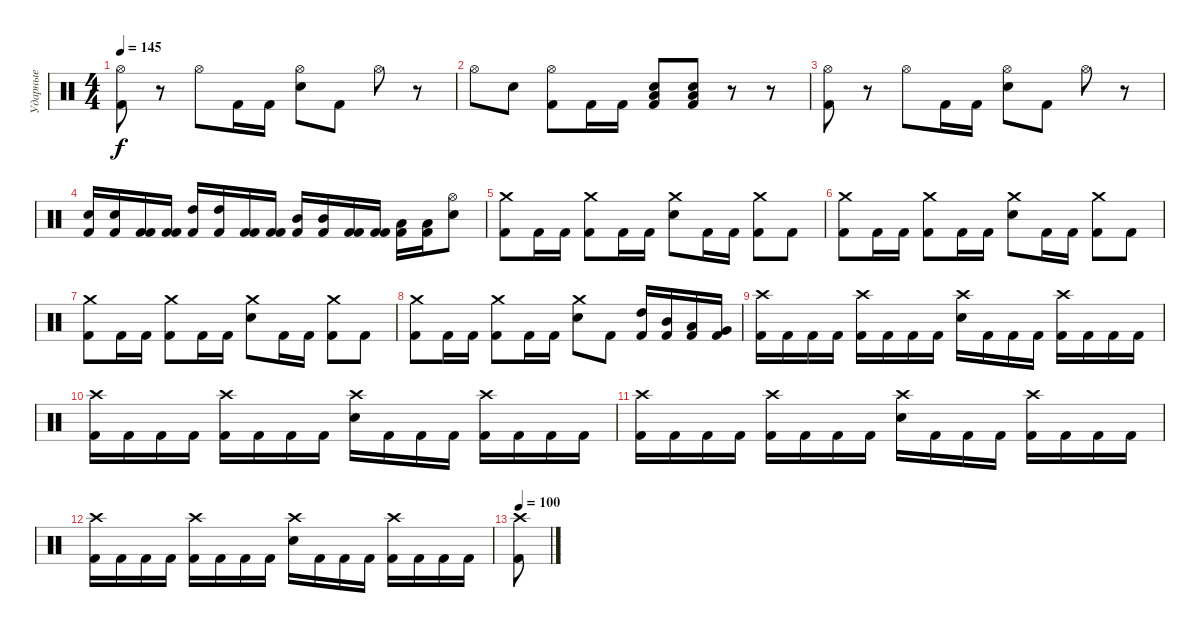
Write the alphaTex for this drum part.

\track ("Ударные" "Ударные") {instrument percussion}
\staff {score}
\articulation defaults
\ts (4 4)
\tempo 145
\clef neutral
\ks c
("Hi-Hat (open)" "Kick (hit) 2").8{dy f} r.8 "Hi-Hat (open)".8 "Kick (hit) 2".16 "Kick (hit) 2".16 ("Hi-Hat (open)" "Electric Snare (hit)").8 "Kick (hit) 2".8 "Hi-Hat (open)".8 r.8 |
"Hi-Hat (open)".8 "Electric Snare (hit)".8 ("Hi-Hat (open)" "Kick (hit) 2").8 "Kick (hit) 2".16 "Kick (hit) 2".16 ("Low Tom (hit)" "Electric Snare (hit)" "Kick (hit) 2").8 ("Low Tom (hit)" "Electric Snare (hit)" "Kick (hit) 2").8 r.8 r.8 |
("Hi-Hat (open)" "Kick (hit) 2").8 r.8 "Hi-Hat (open)".8 "Kick (hit) 2".16 "Kick (hit) 2".16 ("Hi-Hat (open)" "Electric Snare (hit)").8 "Kick (hit) 2".8 "Hi-Hat (open)".8 r.8 |
("Electric Snare (hit)" "Kick (hit) 2").16 ("Electric Snare (hit)" "Kick (hit) 2").16 ("Kick (hit) 2" "Kick (hit) 2").16 ("Kick (hit) 2" "Kick (hit) 2").16 ("High Tom (hit)" "Kick (hit) 2").16 ("High Tom (hit)" "Kick (hit) 2").16 ("Kick (hit) 2" "Kick (hit) 2").16 ("Kick (hit) 2" "Kick (hit) 2").16 ("Mid Tom (hit)" "Kick (hit) 2").16 ("Mid Tom (hit)" "Kick (hit) 2").16 ("Kick (hit) 2" "Kick (hit) 2").16 ("Kick (hit) 2" "Kick (hit) 2").16 ("Low Tom (hit)" "Kick (hit) 2").16 ("Low Tom (hit)" "Kick (hit) 2").16 ("Hi-Hat (open)" "Electric Snare (hit)").8 |
("Crash medium (hit)" "Kick (hit) 2").8 "Kick (hit) 2".16 "Kick (hit) 2".16 ("Crash medium (hit)" "Kick (hit) 2").8 "Kick (hit) 2".16 "Kick (hit) 2".16 ("Crash medium (hit)" "Electric Snare (hit)").8 "Kick (hit) 2".16 "Kick (hit) 2".16 ("Crash medium (hit)" "Kick (hit) 2").8 "Kick (hit) 2".8 |
("Crash medium (hit)" "Kick (hit) 2").8 "Kick (hit) 2".16 "Kick (hit) 2".16 ("Crash medium (hit)" "Kick (hit) 2").8 "Kick (hit) 2".16 "Kick (hit) 2".16 ("Crash medium (hit)" "Electric Snare (hit)").8 "Kick (hit) 2".16 "Kick (hit) 2".16 ("Crash medium (hit)" "Kick (hit) 2").8 "Kick (hit) 2".8 |
("Crash medium (hit)" "Kick (hit) 2").8 "Kick (hit) 2".16 "Kick (hit) 2".16 ("Crash medium (hit)" "Kick (hit) 2").8 "Kick (hit) 2".16 "Kick (hit) 2".16 ("Crash medium (hit)" "Electric Snare (hit)").8 "Kick (hit) 2".16 "Kick (hit) 2".16 ("Crash medium (hit)" "Kick (hit) 2").8 "Kick (hit) 2".8 |
("Crash medium (hit)" "Kick (hit) 2").8 "Kick (hit) 2".16 "Kick (hit) 2".16 ("Crash medium (hit)" "Kick (hit) 2").8 "Kick (hit) 2".16 "Kick (hit) 2".16 ("Crash medium (hit)" "Electric Snare (hit)").8 "Kick (hit) 2".8 ("High Tom (hit)" "Kick (hit) 2").16 ("Mid Tom (hit)" "Kick (hit) 2").16 ("Low Tom (hit)" "Kick (hit) 2").16 ("Very Low Tom (hit)" "Kick (hit) 2").16 |
("Crash high (hit)" "Kick (hit) 2").16 "Kick (hit) 2".16 "Kick (hit) 2".16 "Kick (hit) 2".16 ("Crash high (hit)" "Kick (hit) 2").16 "Kick (hit) 2".16 "Kick (hit) 2".16 "Kick (hit) 2".16 ("Crash high (hit)" "Electric Snare (hit)").16 "Kick (hit) 2".16 "Kick (hit) 2".16 "Kick (hit) 2".16 ("Crash high (hit)" "Kick (hit) 2").16 "Kick (hit) 2".16 "Kick (hit) 2".16 "Kick (hit) 2".16 |
("Crash high (hit)" "Kick (hit) 2").16 "Kick (hit) 2".16 "Kick (hit) 2".16 "Kick (hit) 2".16 ("Crash high (hit)" "Kick (hit) 2").16 "Kick (hit) 2".16 "Kick (hit) 2".16 "Kick (hit) 2".16 ("Crash high (hit)" "Electric Snare (hit)").16 "Kick (hit) 2".16 "Kick (hit) 2".16 "Kick (hit) 2".16 ("Crash high (hit)" "Kick (hit) 2").16 "Kick (hit) 2".16 "Kick (hit) 2".16 "Kick (hit) 2".16 |
("Crash high (hit)" "Kick (hit) 2").16 "Kick (hit) 2".16 "Kick (hit) 2".16 "Kick (hit) 2".16 ("Crash high (hit)" "Kick (hit) 2").16 "Kick (hit) 2".16 "Kick (hit) 2".16 "Kick (hit) 2".16 ("Crash high (hit)" "Electric Snare (hit)").16 "Kick (hit) 2".16 "Kick (hit) 2".16 "Kick (hit) 2".16 ("Crash high (hit)" "Kick (hit) 2").16 "Kick (hit) 2".16 "Kick (hit) 2".16 "Kick (hit) 2".16 |
("Crash high (hit)" "Kick (hit) 2").16 "Kick (hit) 2".16 "Kick (hit) 2".16 "Kick (hit) 2".16 ("Crash high (hit)" "Kick (hit) 2").16 "Kick (hit) 2".16 "Kick (hit) 2".16 "Kick (hit) 2".16 ("Crash high (hit)" "Electric Snare (hit)").16 "Kick (hit) 2".16 "Kick (hit) 2".16 "Kick (hit) 2".16 ("Crash high (hit)" "Kick (hit) 2").16 "Kick (hit) 2".16 "Kick (hit) 2".16 "Kick (hit) 2".16 |
\tempo 100
("Crash high (hit)" "Kick (hit) 2").8
